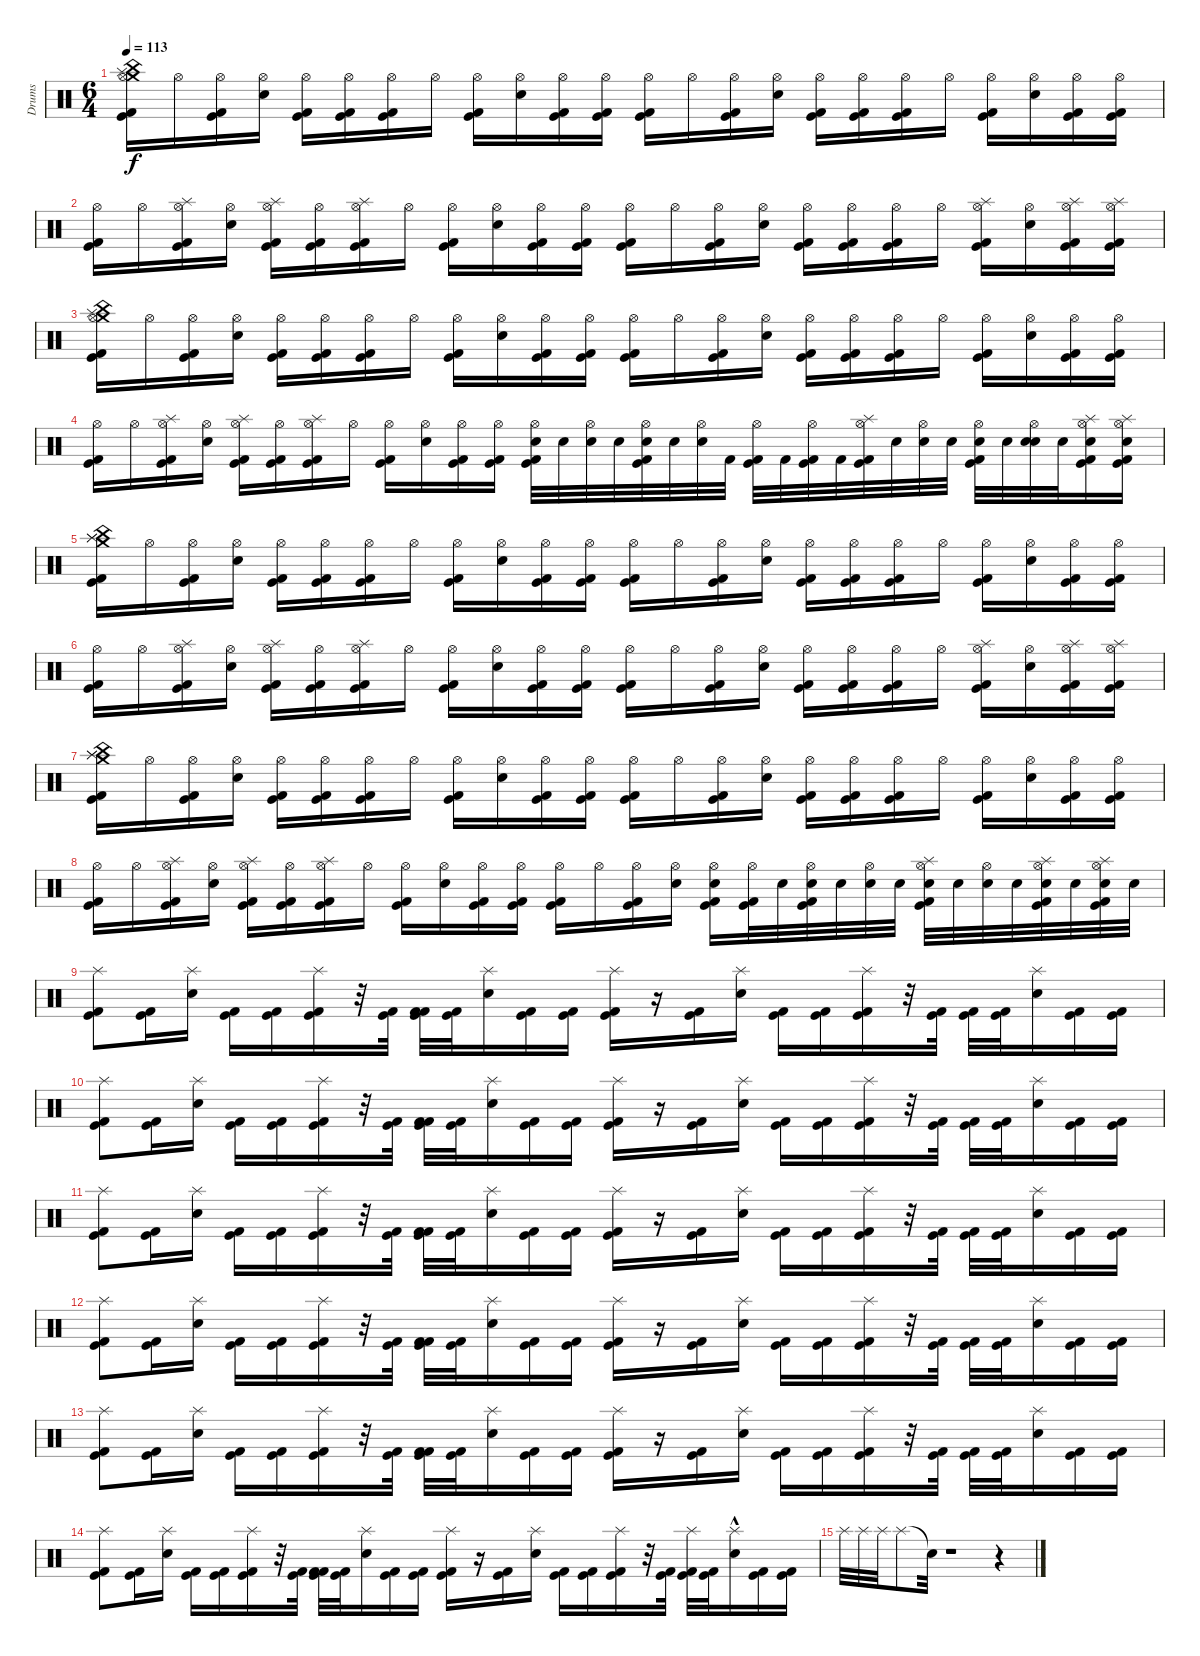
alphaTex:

\track ("Drums" "Drums") {instrument percussion}
\staff {score}
\articulation defaults
\ts (6 4)
\tempo 113
\clef neutral
\ks c
("Crash medium (hit)" "China (hit)" "Splash (hit)" "Kick (hit)" "Kick (hit) 2" "Hi-Hat (open)").16{dy f} "Hi-Hat (open)".16 ("Kick (hit)" "Kick (hit) 2" "Hi-Hat (open)").16 ("Electric Snare (hit)" "Hi-Hat (open)").16 ("Kick (hit) 2" "Kick (hit)" "Hi-Hat (open)").16 ("Kick (hit) 2" "Kick (hit)" "Hi-Hat (open)").16 ("Kick (hit)" "Kick (hit) 2" "Hi-Hat (open)").16 "Hi-Hat (open)".16 ("Kick (hit) 2" "Kick (hit)" "Hi-Hat (open)").16 ("Electric Snare (hit)" "Hi-Hat (open)").16 ("Kick (hit) 2" "Kick (hit)" "Hi-Hat (open)").16 ("Kick (hit) 2" "Kick (hit)" "Hi-Hat (open)").16 ("Kick (hit) 2" "Kick (hit)" "Hi-Hat (open)").16 "Hi-Hat (open)".16 ("Kick (hit) 2" "Kick (hit)" "Hi-Hat (open)").16 ("Electric Snare (hit)" "Hi-Hat (open)").16 ("Kick (hit) 2" "Kick (hit)" "Hi-Hat (open)").16 ("Kick (hit) 2" "Kick (hit)" "Hi-Hat (open)").16 ("Kick (hit) 2" "Kick (hit)" "Hi-Hat (open)").16 "Hi-Hat (open)".16 ("Kick (hit) 2" "Kick (hit)" "Hi-Hat (open)").16 ("Electric Snare (hit)" "Hi-Hat (open)").16 ("Kick (hit) 2" "Kick (hit)" "Hi-Hat (open)").16 ("Kick (hit) 2" "Kick (hit)" "Hi-Hat (open)").16 |
("Kick (hit)" "Kick (hit) 2" "Hi-Hat (open)").16 "Hi-Hat (open)".16 ("Splash (hit)" "Kick (hit)" "Kick (hit) 2" "Hi-Hat (open)").16 ("Electric Snare (hit)" "Hi-Hat (open)").16 ("Splash (hit)" "Kick (hit) 2" "Kick (hit)" "Hi-Hat (open)").16 ("Kick (hit) 2" "Kick (hit)" "Hi-Hat (open)").16 ("Splash (hit)" "Kick (hit)" "Kick (hit) 2" "Hi-Hat (open)").16 "Hi-Hat (open)".16 ("Kick (hit) 2" "Kick (hit)" "Hi-Hat (open)").16 ("Electric Snare (hit)" "Hi-Hat (open)").16 ("Kick (hit) 2" "Kick (hit)" "Hi-Hat (open)").16 ("Kick (hit) 2" "Kick (hit)" "Hi-Hat (open)").16 ("Kick (hit) 2" "Kick (hit)" "Hi-Hat (open)").16 "Hi-Hat (open)".16 ("Kick (hit) 2" "Kick (hit)" "Hi-Hat (open)").16 ("Electric Snare (hit)" "Hi-Hat (open)").16 ("Kick (hit) 2" "Kick (hit)" "Hi-Hat (open)").16 ("Kick (hit) 2" "Kick (hit)" "Hi-Hat (open)").16 ("Kick (hit) 2" "Kick (hit)" "Hi-Hat (open)").16 "Hi-Hat (open)".16 ("Splash (hit)" "Kick (hit) 2" "Kick (hit)" "Hi-Hat (open)").16 ("Electric Snare (hit)" "Hi-Hat (open)").16 ("Splash (hit)" "Kick (hit) 2" "Kick (hit)" "Hi-Hat (open)").16 ("Splash (hit)" "Kick (hit) 2" "Kick (hit)" "Hi-Hat (open)").16 |
("Crash medium (hit)" "China (hit)" "Splash (hit)" "Kick (hit)" "Kick (hit) 2" "Hi-Hat (open)").16 "Hi-Hat (open)".16 ("Kick (hit)" "Kick (hit) 2" "Hi-Hat (open)").16 ("Electric Snare (hit)" "Hi-Hat (open)").16 ("Kick (hit) 2" "Kick (hit)" "Hi-Hat (open)").16 ("Kick (hit) 2" "Kick (hit)" "Hi-Hat (open)").16 ("Kick (hit)" "Kick (hit) 2" "Hi-Hat (open)").16 "Hi-Hat (open)".16 ("Kick (hit) 2" "Kick (hit)" "Hi-Hat (open)").16 ("Electric Snare (hit)" "Hi-Hat (open)").16 ("Kick (hit) 2" "Kick (hit)" "Hi-Hat (open)").16 ("Kick (hit) 2" "Kick (hit)" "Hi-Hat (open)").16 ("Kick (hit) 2" "Kick (hit)" "Hi-Hat (open)").16 "Hi-Hat (open)".16 ("Kick (hit) 2" "Kick (hit)" "Hi-Hat (open)").16 ("Electric Snare (hit)" "Hi-Hat (open)").16 ("Kick (hit) 2" "Kick (hit)" "Hi-Hat (open)").16 ("Kick (hit) 2" "Kick (hit)" "Hi-Hat (open)").16 ("Kick (hit) 2" "Kick (hit)" "Hi-Hat (open)").16 "Hi-Hat (open)".16 ("Kick (hit) 2" "Kick (hit)" "Hi-Hat (open)").16 ("Electric Snare (hit)" "Hi-Hat (open)").16 ("Kick (hit) 2" "Kick (hit)" "Hi-Hat (open)").16 ("Kick (hit) 2" "Kick (hit)" "Hi-Hat (open)").16 |
("Kick (hit)" "Kick (hit) 2" "Hi-Hat (open)").16 "Hi-Hat (open)".16 ("Splash (hit)" "Kick (hit)" "Kick (hit) 2" "Hi-Hat (open)").16 ("Electric Snare (hit)" "Hi-Hat (open)").16 ("Splash (hit)" "Kick (hit) 2" "Kick (hit)" "Hi-Hat (open)").16 ("Kick (hit) 2" "Kick (hit)" "Hi-Hat (open)").16 ("Splash (hit)" "Kick (hit)" "Kick (hit) 2" "Hi-Hat (open)").16 "Hi-Hat (open)".16 ("Kick (hit) 2" "Kick (hit)" "Hi-Hat (open)").16 ("Electric Snare (hit)" "Hi-Hat (open)").16 ("Kick (hit) 2" "Kick (hit)" "Hi-Hat (open)").16 ("Kick (hit) 2" "Kick (hit)" "Hi-Hat (open)").16 ("Electric Snare (hit)" "Kick (hit) 2" "Kick (hit)" "Hi-Hat (open)").32 "Electric Snare (hit)".32 ("Electric Snare (hit)" "Hi-Hat (open)").32 "Electric Snare (hit)".32 ("Electric Snare (hit)" "Kick (hit) 2" "Kick (hit)" "Hi-Hat (open)").32 "Electric Snare (hit)".32 ("Electric Snare (hit)" "Hi-Hat (open)").32 "Kick (hit) 2".32 ("Kick (hit) 2" "Kick (hit)" "Hi-Hat (open)").32 "Kick (hit) 2".32 ("Kick (hit) 2" "Kick (hit)" "Hi-Hat (open)").32 "Kick (hit) 2".32 ("Splash (hit)" "Kick (hit) 2" "Kick (hit)" "Hi-Hat (open)").32 "Snare (hit) 2".32 ("Snare (hit) 2" "Hi-Hat (open)").32 "Snare (hit) 2".32 ("Snare (hit) 2" "Kick (hit) 2" "Kick (hit)" "Hi-Hat (open)").32 "Snare (hit) 2".32 ("Snare (hit) 2" "Electric Snare (hit)" "Hi-Hat (open)").32 "Snare (hit) 2".32 ("Electric Snare (hit)" "Splash (hit)" "Kick (hit) 2" "Kick (hit)" "Hi-Hat (open)").16 ("Electric Snare (hit)" "Splash (hit)" "Kick (hit) 2" "Kick (hit)" "Hi-Hat (open)").16 |
("Splash (hit)" "Crash medium (hit)" "China (hit)" "Splash (hit)" "Kick (hit)" "Kick (hit) 2").16 "Hi-Hat (open)".16 ("Kick (hit)" "Kick (hit) 2" "Hi-Hat (open)").16 ("Electric Snare (hit)" "Hi-Hat (open)").16 ("Kick (hit) 2" "Kick (hit)" "Hi-Hat (open)").16 ("Kick (hit) 2" "Kick (hit)" "Hi-Hat (open)").16 ("Kick (hit)" "Kick (hit) 2" "Hi-Hat (open)").16 "Hi-Hat (open)".16 ("Kick (hit) 2" "Kick (hit)" "Hi-Hat (open)").16 ("Electric Snare (hit)" "Hi-Hat (open)").16 ("Kick (hit) 2" "Kick (hit)" "Hi-Hat (open)").16 ("Kick (hit) 2" "Kick (hit)" "Hi-Hat (open)").16 ("Kick (hit) 2" "Kick (hit)" "Hi-Hat (open)").16 "Hi-Hat (open)".16 ("Kick (hit) 2" "Kick (hit)" "Hi-Hat (open)").16 ("Electric Snare (hit)" "Hi-Hat (open)").16 ("Kick (hit) 2" "Kick (hit)" "Hi-Hat (open)").16 ("Kick (hit) 2" "Kick (hit)" "Hi-Hat (open)").16 ("Kick (hit) 2" "Kick (hit)" "Hi-Hat (open)").16 "Hi-Hat (open)".16 ("Kick (hit) 2" "Kick (hit)" "Hi-Hat (open)").16 ("Electric Snare (hit)" "Hi-Hat (open)").16 ("Kick (hit) 2" "Kick (hit)" "Hi-Hat (open)").16 ("Kick (hit) 2" "Kick (hit)" "Hi-Hat (open)").16 |
("Kick (hit)" "Kick (hit) 2" "Hi-Hat (open)").16 "Hi-Hat (open)".16 ("Splash (hit)" "Kick (hit)" "Kick (hit) 2" "Hi-Hat (open)").16 ("Electric Snare (hit)" "Hi-Hat (open)").16 ("Splash (hit)" "Kick (hit) 2" "Kick (hit)" "Hi-Hat (open)").16 ("Kick (hit) 2" "Kick (hit)" "Hi-Hat (open)").16 ("Splash (hit)" "Kick (hit)" "Kick (hit) 2" "Hi-Hat (open)").16 "Hi-Hat (open)".16 ("Kick (hit) 2" "Kick (hit)" "Hi-Hat (open)").16 ("Electric Snare (hit)" "Hi-Hat (open)").16 ("Kick (hit) 2" "Kick (hit)" "Hi-Hat (open)").16 ("Kick (hit) 2" "Kick (hit)" "Hi-Hat (open)").16 ("Kick (hit) 2" "Kick (hit)" "Hi-Hat (open)").16 "Hi-Hat (open)".16 ("Kick (hit) 2" "Kick (hit)" "Hi-Hat (open)").16 ("Electric Snare (hit)" "Hi-Hat (open)").16 ("Kick (hit) 2" "Kick (hit)" "Hi-Hat (open)").16 ("Kick (hit) 2" "Kick (hit)" "Hi-Hat (open)").16 ("Kick (hit) 2" "Kick (hit)" "Hi-Hat (open)").16 "Hi-Hat (open)".16 ("Splash (hit)" "Kick (hit) 2" "Kick (hit)" "Hi-Hat (open)").16 ("Electric Snare (hit)" "Hi-Hat (open)").16 ("Splash (hit)" "Kick (hit) 2" "Kick (hit)" "Hi-Hat (open)").16 ("Splash (hit)" "Kick (hit) 2" "Kick (hit)" "Hi-Hat (open)").16 |
("Splash (hit)" "Crash medium (hit)" "China (hit)" "Splash (hit)" "Kick (hit)" "Kick (hit) 2").16 "Hi-Hat (open)".16 ("Kick (hit)" "Kick (hit) 2" "Hi-Hat (open)").16 ("Electric Snare (hit)" "Hi-Hat (open)").16 ("Kick (hit) 2" "Kick (hit)" "Hi-Hat (open)").16 ("Kick (hit) 2" "Kick (hit)" "Hi-Hat (open)").16 ("Kick (hit)" "Kick (hit) 2" "Hi-Hat (open)").16 "Hi-Hat (open)".16 ("Kick (hit) 2" "Kick (hit)" "Hi-Hat (open)").16 ("Electric Snare (hit)" "Hi-Hat (open)").16 ("Kick (hit) 2" "Kick (hit)" "Hi-Hat (open)").16 ("Kick (hit) 2" "Kick (hit)" "Hi-Hat (open)").16 ("Kick (hit) 2" "Kick (hit)" "Hi-Hat (open)").16 "Hi-Hat (open)".16 ("Kick (hit) 2" "Kick (hit)" "Hi-Hat (open)").16 ("Electric Snare (hit)" "Hi-Hat (open)").16 ("Kick (hit) 2" "Kick (hit)" "Hi-Hat (open)").16 ("Kick (hit) 2" "Kick (hit)" "Hi-Hat (open)").16 ("Kick (hit) 2" "Kick (hit)" "Hi-Hat (open)").16 "Hi-Hat (open)".16 ("Kick (hit) 2" "Kick (hit)" "Hi-Hat (open)").16 ("Electric Snare (hit)" "Hi-Hat (open)").16 ("Kick (hit) 2" "Kick (hit)" "Hi-Hat (open)").16 ("Kick (hit) 2" "Kick (hit)" "Hi-Hat (open)").16 |
("Kick (hit)" "Kick (hit) 2" "Hi-Hat (open)").16 "Hi-Hat (open)".16 ("Splash (hit)" "Kick (hit)" "Kick (hit) 2" "Hi-Hat (open)").16 ("Electric Snare (hit)" "Hi-Hat (open)").16 ("Splash (hit)" "Kick (hit) 2" "Kick (hit)" "Hi-Hat (open)").16 ("Kick (hit) 2" "Kick (hit)" "Hi-Hat (open)").16 ("Splash (hit)" "Kick (hit)" "Kick (hit) 2" "Hi-Hat (open)").16 "Hi-Hat (open)".16 ("Kick (hit) 2" "Kick (hit)" "Hi-Hat (open)").16 ("Electric Snare (hit)" "Hi-Hat (open)").16 ("Kick (hit) 2" "Kick (hit)" "Hi-Hat (open)").16 ("Kick (hit) 2" "Kick (hit)" "Hi-Hat (open)").16 ("Kick (hit) 2" "Kick (hit)" "Hi-Hat (open)").16 "Hi-Hat (open)".16 ("Kick (hit) 2" "Kick (hit)" "Hi-Hat (open)").16 ("Electric Snare (hit)" "Hi-Hat (open)").16 ("Electric Snare (hit)" "Kick (hit) 2" "Kick (hit)" "Hi-Hat (open)").16 ("Kick (hit) 2" "Kick (hit)" "Hi-Hat (open)").32 "Electric Snare (hit)".32 ("Electric Snare (hit)" "Kick (hit) 2" "Kick (hit)" "Hi-Hat (open)").32 "Electric Snare (hit)".32 ("Electric Snare (hit)" "Hi-Hat (open)").32 "Snare (hit) 2".32 ("Snare (hit) 2" "Splash (hit)" "Kick (hit) 2" "Kick (hit)" "Hi-Hat (open)").32 "Electric Snare (hit)".32 ("Electric Snare (hit)" "Hi-Hat (open)").32 "Electric Snare (hit)".32 ("Electric Snare (hit)" "Splash (hit)" "Kick (hit) 2" "Kick (hit)" "Hi-Hat (open)").32 "Electric Snare (hit)".32 ("Electric Snare (hit)" "Splash (hit)" "Kick (hit) 2" "Kick (hit)" "Hi-Hat (open)").32 "Snare (hit) 2".32 |
("Kick (hit)" "Splash (hit)" "Kick (hit) 2").8 ("Kick (hit)" "Kick (hit) 2").16 ("Splash (hit)" "Electric Snare (hit)").16 ("Kick (hit)" "Kick (hit) 2").16 ("Kick (hit)" "Kick (hit) 2").16 ("Kick (hit)" "Splash (hit)" "Kick (hit) 2").16 r.32 ("Kick (hit)" "Kick (hit) 2").32 ("Kick (hit) 2" "Kick (hit)" "Kick (hit) 2").32 ("Kick (hit)" "Kick (hit) 2").32 ("Splash (hit)" "Electric Snare (hit)").16 ("Kick (hit)" "Kick (hit) 2").16 ("Kick (hit)" "Kick (hit) 2").16 ("Kick (hit)" "Splash (hit)" "Kick (hit) 2").16 r.16 ("Kick (hit)" "Kick (hit) 2").16 ("Splash (hit)" "Electric Snare (hit)").16 ("Kick (hit)" "Kick (hit) 2").16 ("Kick (hit)" "Kick (hit) 2").16 ("Kick (hit)" "Splash (hit)" "Kick (hit) 2").16 r.32 ("Kick (hit) 2" "Kick (hit)").32 ("Kick (hit)" "Kick (hit) 2").32 ("Kick (hit)" "Kick (hit) 2").32 ("Splash (hit)" "Electric Snare (hit)").16 ("Kick (hit)" "Kick (hit) 2").16 ("Kick (hit)" "Kick (hit) 2").16 |
("Kick (hit)" "Splash (hit)" "Kick (hit) 2").8 ("Kick (hit)" "Kick (hit) 2").16 ("Splash (hit)" "Electric Snare (hit)").16 ("Kick (hit)" "Kick (hit) 2").16 ("Kick (hit)" "Kick (hit) 2").16 ("Kick (hit)" "Splash (hit)" "Kick (hit) 2").16 r.32 ("Kick (hit)" "Kick (hit) 2").32 ("Kick (hit) 2" "Kick (hit)" "Kick (hit) 2").32 ("Kick (hit)" "Kick (hit) 2").32 ("Splash (hit)" "Electric Snare (hit)").16 ("Kick (hit)" "Kick (hit) 2").16 ("Kick (hit)" "Kick (hit) 2").16 ("Kick (hit)" "Splash (hit)" "Kick (hit) 2").16 r.16 ("Kick (hit)" "Kick (hit) 2").16 ("Splash (hit)" "Electric Snare (hit)").16 ("Kick (hit)" "Kick (hit) 2").16 ("Kick (hit)" "Kick (hit) 2").16 ("Kick (hit)" "Splash (hit)" "Kick (hit) 2").16 r.32 ("Kick (hit) 2" "Kick (hit)").32 ("Kick (hit)" "Kick (hit) 2").32 ("Kick (hit)" "Kick (hit) 2").32 ("Splash (hit)" "Electric Snare (hit)").16 ("Kick (hit)" "Kick (hit) 2").16 ("Kick (hit)" "Kick (hit) 2").16 |
("Kick (hit)" "Splash (hit)" "Kick (hit) 2").8 ("Kick (hit)" "Kick (hit) 2").16 ("Splash (hit)" "Electric Snare (hit)").16 ("Kick (hit)" "Kick (hit) 2").16 ("Kick (hit)" "Kick (hit) 2").16 ("Kick (hit)" "Splash (hit)" "Kick (hit) 2").16 r.32 ("Kick (hit)" "Kick (hit) 2").32 ("Kick (hit) 2" "Kick (hit)" "Kick (hit) 2").32 ("Kick (hit)" "Kick (hit) 2").32 ("Splash (hit)" "Electric Snare (hit)").16 ("Kick (hit)" "Kick (hit) 2").16 ("Kick (hit)" "Kick (hit) 2").16 ("Kick (hit)" "Splash (hit)" "Kick (hit) 2").16 r.16 ("Kick (hit)" "Kick (hit) 2").16 ("Splash (hit)" "Electric Snare (hit)").16 ("Kick (hit)" "Kick (hit) 2").16 ("Kick (hit)" "Kick (hit) 2").16 ("Kick (hit)" "Splash (hit)" "Kick (hit) 2").16 r.32 ("Kick (hit) 2" "Kick (hit)").32 ("Kick (hit)" "Kick (hit) 2").32 ("Kick (hit)" "Kick (hit) 2").32 ("Splash (hit)" "Electric Snare (hit)").16 ("Kick (hit)" "Kick (hit) 2").16 ("Kick (hit)" "Kick (hit) 2").16 |
("Kick (hit)" "Splash (hit)" "Kick (hit) 2").8 ("Kick (hit)" "Kick (hit) 2").16 ("Splash (hit)" "Electric Snare (hit)").16 ("Kick (hit)" "Kick (hit) 2").16 ("Kick (hit)" "Kick (hit) 2").16 ("Kick (hit)" "Splash (hit)" "Kick (hit) 2").16 r.32 ("Kick (hit)" "Kick (hit) 2").32 ("Kick (hit) 2" "Kick (hit)" "Kick (hit) 2").32 ("Kick (hit)" "Kick (hit) 2").32 ("Splash (hit)" "Electric Snare (hit)").16 ("Kick (hit)" "Kick (hit) 2").16 ("Kick (hit)" "Kick (hit) 2").16 ("Kick (hit)" "Splash (hit)" "Kick (hit) 2").16 r.16 ("Kick (hit)" "Kick (hit) 2").16 ("Splash (hit)" "Electric Snare (hit)").16 ("Kick (hit)" "Kick (hit) 2").16 ("Kick (hit)" "Kick (hit) 2").16 ("Kick (hit)" "Splash (hit)" "Kick (hit) 2").16 r.32 ("Kick (hit) 2" "Kick (hit)").32 ("Kick (hit)" "Kick (hit) 2").32 ("Kick (hit)" "Kick (hit) 2").32 ("Splash (hit)" "Electric Snare (hit)").16 ("Kick (hit)" "Kick (hit) 2").16 ("Kick (hit)" "Kick (hit) 2").16 |
("Kick (hit)" "Splash (hit)" "Kick (hit) 2").8 ("Kick (hit)" "Kick (hit) 2").16 ("Splash (hit)" "Electric Snare (hit)").16 ("Kick (hit)" "Kick (hit) 2").16 ("Kick (hit)" "Kick (hit) 2").16 ("Kick (hit)" "Splash (hit)" "Kick (hit) 2").16 r.32 ("Kick (hit)" "Kick (hit) 2").32 ("Kick (hit) 2" "Kick (hit)" "Kick (hit) 2").32 ("Kick (hit)" "Kick (hit) 2").32 ("Splash (hit)" "Electric Snare (hit)").16 ("Kick (hit)" "Kick (hit) 2").16 ("Kick (hit)" "Kick (hit) 2").16 ("Kick (hit)" "Splash (hit)" "Kick (hit) 2").16 r.16 ("Kick (hit)" "Kick (hit) 2").16 ("Splash (hit)" "Electric Snare (hit)").16 ("Kick (hit)" "Kick (hit) 2").16 ("Kick (hit)" "Kick (hit) 2").16 ("Kick (hit)" "Splash (hit)" "Kick (hit) 2").16 r.32 ("Kick (hit) 2" "Kick (hit)").32 ("Kick (hit)" "Kick (hit) 2").32 ("Kick (hit)" "Kick (hit) 2").32 ("Splash (hit)" "Electric Snare (hit)").16 ("Kick (hit)" "Kick (hit) 2").16 ("Kick (hit)" "Kick (hit) 2").16 |
("Kick (hit)" "Splash (hit)" "Kick (hit) 2").8 ("Kick (hit)" "Kick (hit) 2").16 ("Splash (hit)" "Electric Snare (hit)").16 ("Kick (hit)" "Kick (hit) 2").16 ("Kick (hit)" "Kick (hit) 2").16 ("Kick (hit)" "Splash (hit)" "Kick (hit) 2").16 r.32 ("Kick (hit)" "Kick (hit) 2").32 ("Kick (hit) 2" "Kick (hit)" "Kick (hit) 2").32 ("Kick (hit)" "Kick (hit) 2").32 ("Splash (hit)" "Electric Snare (hit)").16 ("Kick (hit)" "Kick (hit) 2").16 ("Kick (hit)" "Kick (hit) 2").16 ("Kick (hit)" "Splash (hit)" "Kick (hit) 2").16 r.16 ("Kick (hit)" "Kick (hit) 2").16 ("Splash (hit)" "Electric Snare (hit)").16 ("Kick (hit)" "Kick (hit) 2").16 ("Kick (hit)" "Kick (hit) 2").16 ("Kick (hit)" "Splash (hit)" "Kick (hit) 2").16 r.32 ("Kick (hit) 2" "Kick (hit)").32 ("Splash (hit)" "Kick (hit)" "Kick (hit) 2").32 ("Kick (hit)" "Kick (hit) 2").32 ("Splash (hit)"{hac} "Electric Snare (hit)").16 ("Kick (hit)" "Kick (hit) 2").16 ("Kick (hit)" "Kick (hit) 2").16 |
"Splash (hit)".32 "Splash (hit)".32 "Splash (hit)".32 "Splash (hit)".8 "Snare (hit)"{t}.32 r.1 r.4
